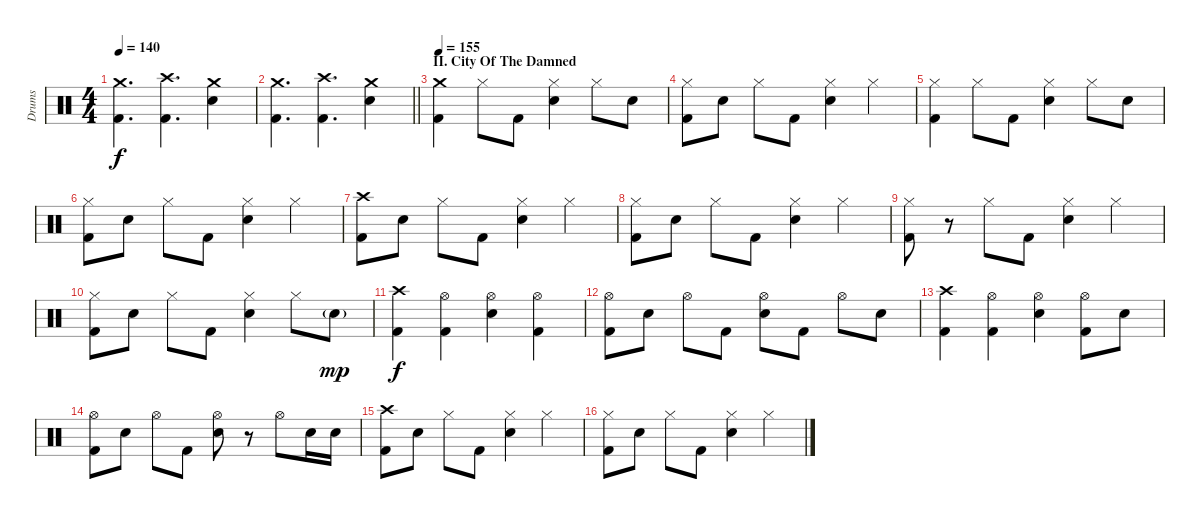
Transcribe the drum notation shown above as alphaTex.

\track ("Drums" "Drums") {instrument percussion}
\staff {score}
\articulation defaults
\ts (4 4)
\tempo 140
\clef neutral
\ks c
("Crash medium (hit)" "Kick (hit) 2").4{d dy f} ("Crash high (hit)" "Kick (hit) 2").4{d} ("Crash medium (hit)" "Snare (hit) 2").4 |
\barLineRight lightlight
("Crash medium (hit)" "Kick (hit) 2").4{d} ("Crash high (hit)" "Kick (hit) 2").4{d} ("Crash medium (hit)" "Snare (hit) 2").4 |
\section ("" "II. City Of The Damned")
\tempo 155
("Crash medium (hit)" "Kick (hit) 2").4 "Hi-Hat (closed)".8 "Kick (hit) 2".8 ("Hi-Hat (closed)" "Snare (hit) 2").4 "Hi-Hat (closed)".8 "Snare (hit) 2".8 |
("Hi-Hat (closed)" "Kick (hit) 2").8 "Snare (hit) 2".8 "Hi-Hat (closed)".8 "Kick (hit) 2".8 ("Hi-Hat (closed)" "Snare (hit) 2").4 "Hi-Hat (closed)".4 |
("Hi-Hat (closed)" "Kick (hit) 2").4 "Hi-Hat (closed)".8 "Kick (hit) 2".8 ("Hi-Hat (closed)" "Snare (hit) 2").4 "Hi-Hat (closed)".8 "Snare (hit) 2".8 |
("Hi-Hat (closed)" "Kick (hit) 2").8 "Snare (hit) 2".8 "Hi-Hat (closed)".8 "Kick (hit) 2".8 ("Hi-Hat (closed)" "Snare (hit) 2").4 "Hi-Hat (closed)".4 |
("Crash high (hit)" "Kick (hit) 2").8 "Snare (hit) 2".8 "Hi-Hat (closed)".8 "Kick (hit) 2".8 ("Hi-Hat (closed)" "Snare (hit) 2").4 "Hi-Hat (closed)".4 |
("Hi-Hat (closed)" "Kick (hit) 2").8 "Snare (hit) 2".8 "Hi-Hat (closed)".8 "Kick (hit) 2".8 ("Hi-Hat (closed)" "Snare (hit) 2").4 "Hi-Hat (closed)".4 |
("Hi-Hat (closed)" "Kick (hit) 2").8 r.8 "Hi-Hat (closed)".8 "Kick (hit) 2".8 ("Hi-Hat (closed)" "Snare (hit) 2").4 "Hi-Hat (closed)".4 |
("Hi-Hat (closed)" "Kick (hit) 2").8 "Snare (hit) 2".8 "Hi-Hat (closed)".8 "Kick (hit) 2".8 ("Hi-Hat (closed)" "Snare (hit) 2").4 "Hi-Hat (closed)".8 "Snare (hit) 2"{g}.8{dy mp} |
("Crash high (hit)" "Kick (hit) 2").4{dy f} ("Hi-Hat (open)" "Kick (hit) 2").4 ("Hi-Hat (open)" "Snare (hit) 2").4 ("Hi-Hat (open)" "Kick (hit) 2").4 |
("Hi-Hat (open)" "Kick (hit) 2").8 "Snare (hit) 2".8 "Hi-Hat (open)".8 "Kick (hit) 2".8 ("Hi-Hat (open)" "Snare (hit) 2").8 "Kick (hit) 2".8 "Hi-Hat (open)".8 "Snare (hit) 2".8 |
("Crash high (hit)" "Kick (hit) 2").4 ("Hi-Hat (open)" "Kick (hit) 2").4 ("Hi-Hat (open)" "Snare (hit) 2").4 ("Hi-Hat (open)" "Kick (hit) 2").8 "Snare (hit) 2".8 |
("Hi-Hat (open)" "Kick (hit) 2").8 "Snare (hit) 2".8 "Hi-Hat (open)".8 "Kick (hit) 2".8 ("Hi-Hat (open)" "Snare (hit) 2").8 r.8 "Hi-Hat (open)".8 "Snare (hit) 2".16 "Snare (hit) 2".16 |
("Crash high (hit)" "Kick (hit) 2").8 "Snare (hit) 2".8 "Hi-Hat (closed)".8 "Kick (hit) 2".8 ("Hi-Hat (closed)" "Snare (hit) 2").4 "Hi-Hat (closed)".4 |
("Hi-Hat (closed)" "Kick (hit) 2").8 "Snare (hit) 2".8 "Hi-Hat (closed)".8 "Kick (hit) 2".8 ("Hi-Hat (closed)" "Snare (hit) 2").4 "Hi-Hat (closed)".4
